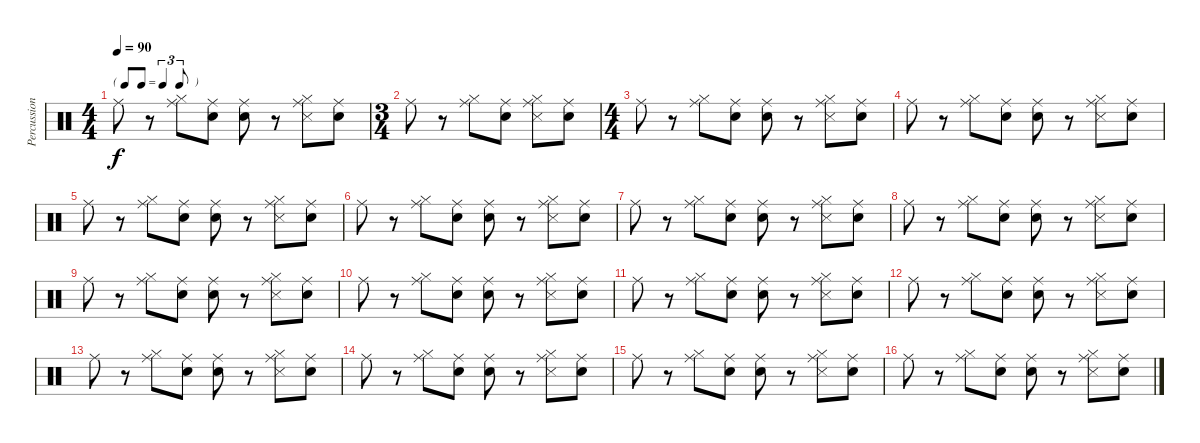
\track ("Percussion" "Percussion") {instrument percussion}
\staff {score}
\articulation defaults
\ts (4 4)
\tf triplet8th
\tempo 90
\clef neutral
\ks c "Ride (middle)".8{dy f}
r.8 ("Hi-Hat (closed)" "Ride (middle)").8 ("Snare (hit)" "Ride (middle)").8 ("Snare (hit)" "Ride (middle)").8 r.8 ("Hi-Hat (closed)" "Snare (side stick) 3" "Ride (middle)").8 ("Snare (hit)" "Ride (middle)").8 |
\ts (3 4)
"Ride (middle)".8 r.8 ("Hi-Hat (closed)" "Ride (middle)").8 ("Snare (hit)" "Ride (middle)").8 ("Hi-Hat (closed)" "Snare (side stick) 3" "Ride (middle)").8 ("Snare (hit)" "Ride (middle)").8 |
\ts (4 4)
"Ride (middle)".8 r.8 ("Hi-Hat (closed)" "Ride (middle)").8 ("Snare (hit)" "Ride (middle)").8 ("Snare (hit)" "Ride (middle)").8 r.8 ("Hi-Hat (closed)" "Snare (side stick) 3" "Ride (middle)").8 ("Snare (hit)" "Ride (middle)").8 |
"Ride (middle)".8 r.8 ("Hi-Hat (closed)" "Ride (middle)").8 ("Snare (hit)" "Ride (middle)").8 ("Snare (hit)" "Ride (middle)").8 r.8 ("Hi-Hat (closed)" "Snare (side stick) 3" "Ride (middle)").8 ("Snare (hit)" "Ride (middle)").8 |
"Ride (middle)".8 r.8 ("Hi-Hat (closed)" "Ride (middle)").8 ("Snare (hit)" "Ride (middle)").8 ("Snare (hit)" "Ride (middle)").8 r.8 ("Hi-Hat (closed)" "Snare (side stick) 3" "Ride (middle)").8 ("Snare (hit)" "Ride (middle)").8 |
"Ride (middle)".8 r.8 ("Hi-Hat (closed)" "Ride (middle)").8 ("Snare (hit)" "Ride (middle)").8 ("Snare (hit)" "Ride (middle)").8 r.8 ("Hi-Hat (closed)" "Snare (side stick) 3" "Ride (middle)").8 ("Snare (hit)" "Ride (middle)").8 |
"Ride (middle)".8 r.8 ("Hi-Hat (closed)" "Ride (middle)").8 ("Snare (hit)" "Ride (middle)").8 ("Snare (hit)" "Ride (middle)").8 r.8 ("Hi-Hat (closed)" "Snare (side stick) 3" "Ride (middle)").8 ("Snare (hit)" "Ride (middle)").8 |
"Ride (middle)".8 r.8 ("Hi-Hat (closed)" "Ride (middle)").8 ("Snare (hit)" "Ride (middle)").8 ("Snare (hit)" "Ride (middle)").8 r.8 ("Hi-Hat (closed)" "Snare (side stick) 3" "Ride (middle)").8 ("Snare (hit)" "Ride (middle)").8 |
"Ride (middle)".8 r.8 ("Hi-Hat (closed)" "Ride (middle)").8 ("Snare (hit)" "Ride (middle)").8 ("Snare (hit)" "Ride (middle)").8 r.8 ("Hi-Hat (closed)" "Snare (side stick) 3" "Ride (middle)").8 ("Snare (hit)" "Ride (middle)").8 |
"Ride (middle)".8 r.8 ("Hi-Hat (closed)" "Ride (middle)").8 ("Snare (hit)" "Ride (middle)").8 ("Snare (hit)" "Ride (middle)").8 r.8 ("Hi-Hat (closed)" "Snare (side stick) 3" "Ride (middle)").8 ("Snare (hit)" "Ride (middle)").8 |
"Ride (middle)".8 r.8 ("Hi-Hat (closed)" "Ride (middle)").8 ("Snare (hit)" "Ride (middle)").8 ("Snare (hit)" "Ride (middle)").8 r.8 ("Hi-Hat (closed)" "Snare (side stick) 3" "Ride (middle)").8 ("Snare (hit)" "Ride (middle)").8 |
"Ride (middle)".8 r.8 ("Hi-Hat (closed)" "Ride (middle)").8 ("Snare (hit)" "Ride (middle)").8 ("Snare (hit)" "Ride (middle)").8 r.8 ("Hi-Hat (closed)" "Snare (side stick) 3" "Ride (middle)").8 ("Snare (hit)" "Ride (middle)").8 |
"Ride (middle)".8 r.8 ("Hi-Hat (closed)" "Ride (middle)").8 ("Snare (hit)" "Ride (middle)").8 ("Snare (hit)" "Ride (middle)").8 r.8 ("Hi-Hat (closed)" "Snare (side stick) 3" "Ride (middle)").8 ("Snare (hit)" "Ride (middle)").8 |
"Ride (middle)".8 r.8 ("Hi-Hat (closed)" "Ride (middle)").8 ("Snare (hit)" "Ride (middle)").8 ("Snare (hit)" "Ride (middle)").8 r.8 ("Hi-Hat (closed)" "Snare (side stick) 3" "Ride (middle)").8 ("Snare (hit)" "Ride (middle)").8 |
"Ride (middle)".8 r.8 ("Hi-Hat (closed)" "Ride (middle)").8 ("Snare (hit)" "Ride (middle)").8 ("Snare (hit)" "Ride (middle)").8 r.8 ("Hi-Hat (closed)" "Snare (side stick) 3" "Ride (middle)").8 ("Snare (hit)" "Ride (middle)").8 |
"Ride (middle)".8 r.8 ("Hi-Hat (closed)" "Ride (middle)").8 ("Snare (hit)" "Ride (middle)").8 ("Snare (hit)" "Ride (middle)").8 r.8 ("Hi-Hat (closed)" "Snare (side stick) 3" "Ride (middle)").8 ("Snare (hit)" "Ride (middle)").8
